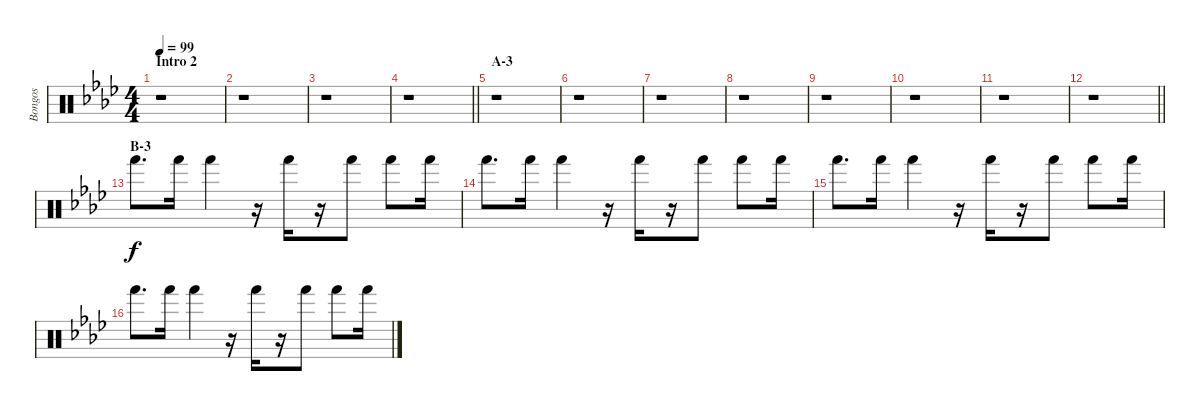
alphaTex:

\track ("Bongos" "Bongos") {instrument percussion}
\staff {score}
\articulation defaults
\ts (4 4)
\section ("" "Intro 2")
\tempo 99
\clef neutral
\ks ab
r.1{dy f} |
r.1 |
r.1 |
\barLineRight lightlight
r.1 |
\section ("" "A-3")
r.1 |
r.1 |
r.1 |
r.1 |
r.1 |
r.1 |
r.1 |
\barLineRight lightlight
r.1 |
\section ("" "B-3")
"Hand (hit)".8{d} "Hand (hit)".16 "Hand (hit)".4 r.16 "Hand (hit)".16 r.16 "Hand (hit)".8 "Hand (hit)".8 "Hand (hit)".16 |
"Hand (hit)".8{d} "Hand (hit)".16 "Hand (hit)".4 r.16 "Hand (hit)".16 r.16 "Hand (hit)".8 "Hand (hit)".8 "Hand (hit)".16 |
"Hand (hit)".8{d} "Hand (hit)".16 "Hand (hit)".4 r.16 "Hand (hit)".16 r.16 "Hand (hit)".8 "Hand (hit)".8 "Hand (hit)".16 |
"Hand (hit)".8{d} "Hand (hit)".16 "Hand (hit)".4 r.16 "Hand (hit)".16 r.16 "Hand (hit)".8 "Hand (hit)".8 "Hand (hit)".16
